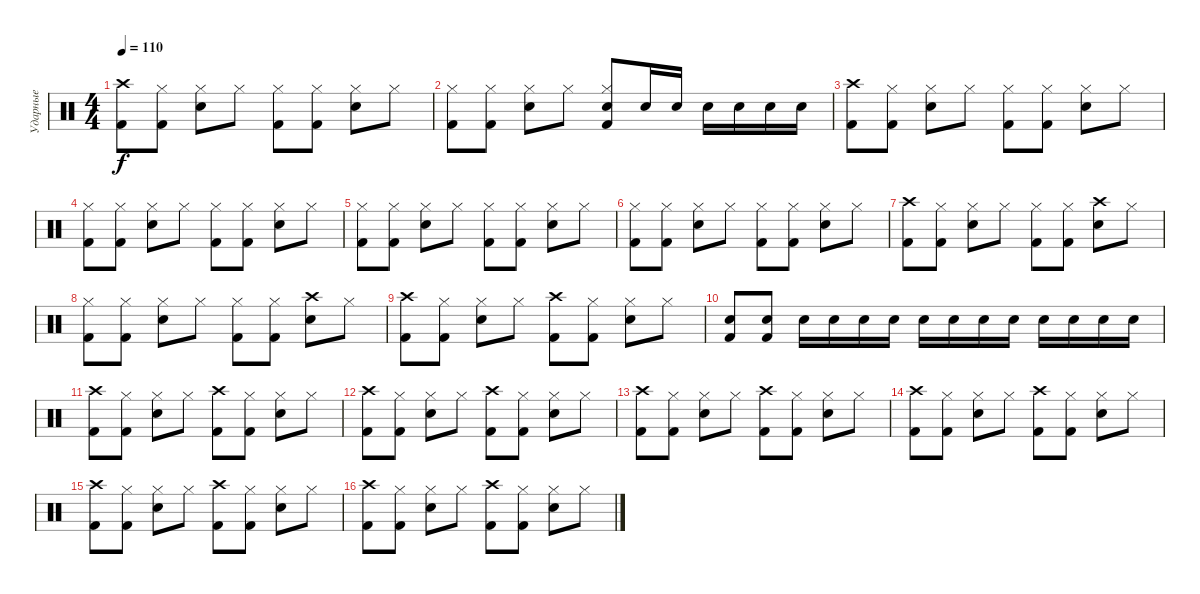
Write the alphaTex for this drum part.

\track ("Ударные" "Ударные") {instrument percussion}
\staff {score}
\articulation defaults
\ts (4 4)
\tempo 110
\clef neutral
\ks c
("Crash high (hit)" "Kick (hit) 2").8{dy f} ("Hi-Hat (closed)" "Kick (hit) 2").8 ("Hi-Hat (closed)" "Snare (hit) 2").8 "Hi-Hat (closed)".8 ("Hi-Hat (closed)" "Kick (hit) 2").8 ("Hi-Hat (closed)" "Kick (hit) 2").8 ("Hi-Hat (closed)" "Snare (hit) 2").8 "Hi-Hat (closed)".8 |
("Hi-Hat (closed)" "Kick (hit) 2").8 ("Hi-Hat (closed)" "Kick (hit) 2").8 ("Hi-Hat (closed)" "Snare (hit) 2").8 "Hi-Hat (closed)".8 ("Hi-Hat (closed)" "Snare (hit) 2" "Kick (hit) 2").8 "Snare (hit) 2".16 "Snare (hit) 2".16 "Snare (hit) 2".16 "Snare (hit) 2".16 "Snare (hit) 2".16 "Snare (hit) 2".16 |
("Crash high (hit)" "Kick (hit) 2").8{volume 16} ("Hi-Hat (closed)" "Kick (hit) 2").8 ("Hi-Hat (closed)" "Snare (hit) 2").8 "Hi-Hat (closed)".8 ("Hi-Hat (closed)" "Kick (hit) 2").8 ("Hi-Hat (closed)" "Kick (hit) 2").8 ("Hi-Hat (closed)" "Snare (hit) 2").8 "Hi-Hat (closed)".8 |
("Hi-Hat (closed)" "Kick (hit) 2").8 ("Hi-Hat (closed)" "Kick (hit) 2").8 ("Hi-Hat (closed)" "Snare (hit) 2").8 "Hi-Hat (closed)".8 ("Hi-Hat (closed)" "Kick (hit) 2").8 ("Hi-Hat (closed)" "Kick (hit) 2").8 ("Hi-Hat (closed)" "Snare (hit) 2").8 "Hi-Hat (closed)".8 |
("Hi-Hat (closed)" "Kick (hit) 2").8 ("Hi-Hat (closed)" "Kick (hit) 2").8 ("Hi-Hat (closed)" "Snare (hit) 2").8 "Hi-Hat (closed)".8 ("Hi-Hat (closed)" "Kick (hit) 2").8 ("Hi-Hat (closed)" "Kick (hit) 2").8 ("Hi-Hat (closed)" "Snare (hit) 2").8 "Hi-Hat (closed)".8 |
("Hi-Hat (closed)" "Kick (hit) 2").8 ("Hi-Hat (closed)" "Kick (hit) 2").8 ("Hi-Hat (closed)" "Snare (hit) 2").8 "Hi-Hat (closed)".8 ("Hi-Hat (closed)" "Kick (hit) 2").8 ("Hi-Hat (closed)" "Kick (hit) 2").8 ("Hi-Hat (closed)" "Snare (hit) 2").8 "Hi-Hat (closed)".8 |
("Crash high (hit)" "Kick (hit) 2").8 ("Hi-Hat (closed)" "Kick (hit) 2").8 ("Hi-Hat (closed)" "Snare (hit) 2").8 "Hi-Hat (closed)".8 ("Hi-Hat (closed)" "Kick (hit) 2").8 ("Hi-Hat (closed)" "Kick (hit) 2").8 ("Crash high (hit)" "Snare (hit) 2").8 "Hi-Hat (closed)".8 |
("Hi-Hat (closed)" "Kick (hit) 2").8 ("Hi-Hat (closed)" "Kick (hit) 2").8 ("Hi-Hat (closed)" "Snare (hit) 2").8 "Hi-Hat (closed)".8 ("Hi-Hat (closed)" "Kick (hit) 2").8 ("Hi-Hat (closed)" "Kick (hit) 2").8 ("Crash high (hit)" "Snare (hit) 2").8 "Hi-Hat (closed)".8 |
("Crash high (hit)" "Kick (hit) 2").8 ("Hi-Hat (closed)" "Kick (hit) 2").8 ("Hi-Hat (closed)" "Snare (hit) 2").8 "Hi-Hat (closed)".8 ("Crash high (hit)" "Kick (hit) 2").8 ("Hi-Hat (closed)" "Kick (hit) 2").8 ("Hi-Hat (closed)" "Snare (hit) 2").8 "Hi-Hat (closed)".8 |
("Snare (hit) 2" "Kick (hit) 2").8 ("Snare (hit) 2" "Kick (hit) 2").8 "Snare (hit) 2".16 "Snare (hit) 2".16 "Snare (hit) 2".16 "Snare (hit) 2".16 "Snare (hit) 2".16 "Snare (hit) 2".16 "Snare (hit) 2".16 "Snare (hit) 2".16 "Snare (hit) 2".16 "Snare (hit) 2".16 "Snare (hit) 2".16 "Snare (hit) 2".16 |
("Crash high (hit)" "Kick (hit) 2").8 ("Hi-Hat (closed)" "Kick (hit) 2").8 ("Hi-Hat (closed)" "Snare (hit) 2").8 "Hi-Hat (closed)".8 ("Crash high (hit)" "Kick (hit) 2").8 ("Hi-Hat (closed)" "Kick (hit) 2").8 ("Hi-Hat (closed)" "Snare (hit) 2").8 "Hi-Hat (closed)".8 |
("Crash high (hit)" "Kick (hit) 2").8 ("Hi-Hat (closed)" "Kick (hit) 2").8 ("Hi-Hat (closed)" "Snare (hit) 2").8 "Hi-Hat (closed)".8 ("Crash high (hit)" "Kick (hit) 2").8 ("Hi-Hat (closed)" "Kick (hit) 2").8 ("Hi-Hat (closed)" "Snare (hit) 2").8 "Hi-Hat (closed)".8 |
("Crash high (hit)" "Kick (hit) 2").8 ("Hi-Hat (closed)" "Kick (hit) 2").8 ("Hi-Hat (closed)" "Snare (hit) 2").8 "Hi-Hat (closed)".8 ("Crash high (hit)" "Kick (hit) 2").8 ("Hi-Hat (closed)" "Kick (hit) 2").8 ("Hi-Hat (closed)" "Snare (hit) 2").8 "Hi-Hat (closed)".8 |
("Crash high (hit)" "Kick (hit) 2").8 ("Hi-Hat (closed)" "Kick (hit) 2").8 ("Hi-Hat (closed)" "Snare (hit) 2").8 "Hi-Hat (closed)".8 ("Crash high (hit)" "Kick (hit) 2").8 ("Hi-Hat (closed)" "Kick (hit) 2").8 ("Hi-Hat (closed)" "Snare (hit) 2").8 "Hi-Hat (closed)".8 |
("Crash high (hit)" "Kick (hit) 2").8 ("Hi-Hat (closed)" "Kick (hit) 2").8 ("Hi-Hat (closed)" "Snare (hit) 2").8 "Hi-Hat (closed)".8 ("Crash high (hit)" "Kick (hit) 2").8 ("Hi-Hat (closed)" "Kick (hit) 2").8 ("Hi-Hat (closed)" "Snare (hit) 2").8 "Hi-Hat (closed)".8 |
("Crash high (hit)" "Kick (hit) 2").8 ("Hi-Hat (closed)" "Kick (hit) 2").8 ("Hi-Hat (closed)" "Snare (hit) 2").8 "Hi-Hat (closed)".8 ("Crash high (hit)" "Kick (hit) 2").8 ("Hi-Hat (closed)" "Kick (hit) 2").8 ("Hi-Hat (closed)" "Snare (hit) 2").8 "Hi-Hat (closed)".8
